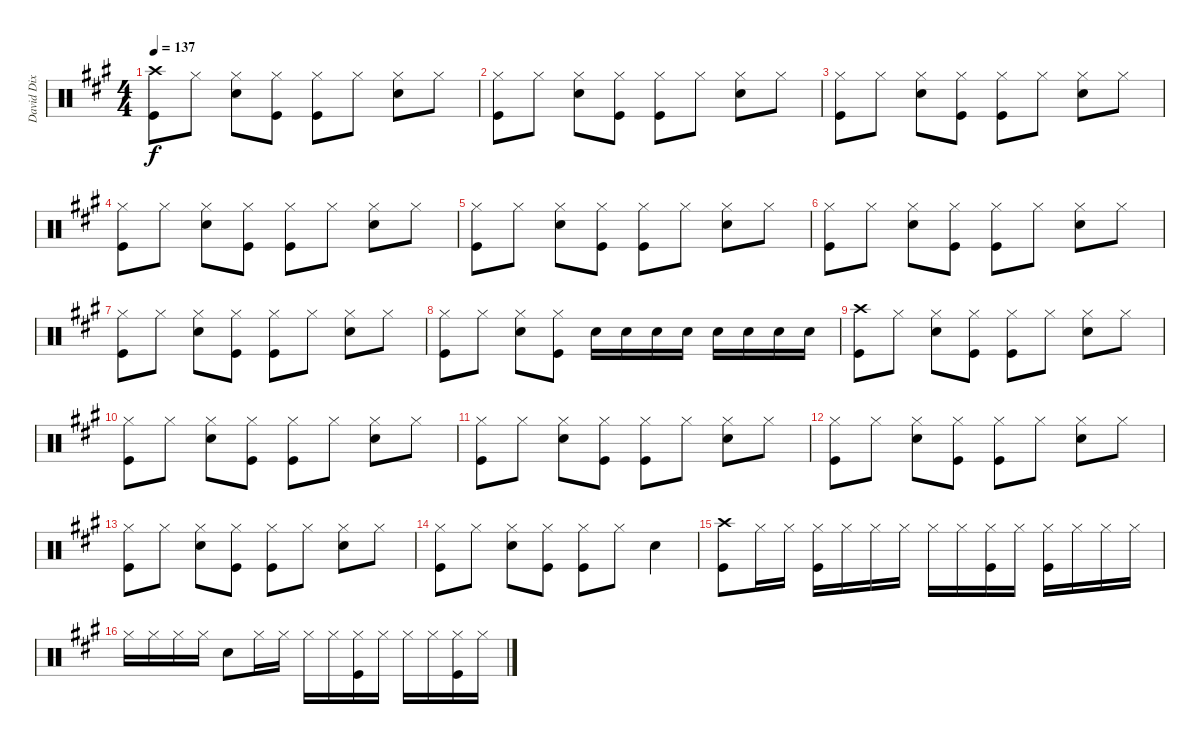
\track ("David Dix Drums" "David Dix ") {instrument percussion}
\staff {score}
\articulation defaults
\ts (4 4)
\tempo 137
\clef neutral
\ks a
("Crash high (hit)" "Kick (hit)").8{dy f} "Hi-Hat (closed)".8 ("Hi-Hat (closed)" "Snare (hit) 2").8 ("Hi-Hat (closed)" "Kick (hit)").8 ("Hi-Hat (closed)" "Kick (hit)").8 "Hi-Hat (closed)".8 ("Hi-Hat (closed)" "Snare (hit) 2").8 "Hi-Hat (closed)".8 |
("Hi-Hat (closed)" "Kick (hit)").8 "Hi-Hat (closed)".8 ("Hi-Hat (closed)" "Snare (hit) 2").8 ("Hi-Hat (closed)" "Kick (hit)").8 ("Hi-Hat (closed)" "Kick (hit)").8 "Hi-Hat (closed)".8 ("Hi-Hat (closed)" "Snare (hit) 2").8 "Hi-Hat (closed)".8 |
("Hi-Hat (closed)" "Kick (hit)").8 "Hi-Hat (closed)".8 ("Hi-Hat (closed)" "Snare (hit) 2").8 ("Hi-Hat (closed)" "Kick (hit)").8 ("Hi-Hat (closed)" "Kick (hit)").8 "Hi-Hat (closed)".8 ("Hi-Hat (closed)" "Snare (hit) 2").8 "Hi-Hat (closed)".8 |
("Hi-Hat (closed)" "Kick (hit)").8 "Hi-Hat (closed)".8 ("Hi-Hat (closed)" "Snare (hit) 2").8 ("Hi-Hat (closed)" "Kick (hit)").8 ("Hi-Hat (closed)" "Kick (hit)").8 "Hi-Hat (closed)".8 ("Hi-Hat (closed)" "Snare (hit) 2").8 "Hi-Hat (closed)".8 |
("Hi-Hat (closed)" "Kick (hit)").8 "Hi-Hat (closed)".8 ("Hi-Hat (closed)" "Snare (hit) 2").8 ("Hi-Hat (closed)" "Kick (hit)").8 ("Hi-Hat (closed)" "Kick (hit)").8 "Hi-Hat (closed)".8 ("Hi-Hat (closed)" "Snare (hit) 2").8 "Hi-Hat (closed)".8 |
("Hi-Hat (closed)" "Kick (hit)").8 "Hi-Hat (closed)".8 ("Hi-Hat (closed)" "Snare (hit) 2").8 ("Hi-Hat (closed)" "Kick (hit)").8 ("Hi-Hat (closed)" "Kick (hit)").8 "Hi-Hat (closed)".8 ("Hi-Hat (closed)" "Snare (hit) 2").8 "Hi-Hat (closed)".8 |
("Hi-Hat (closed)" "Kick (hit)").8 "Hi-Hat (closed)".8 ("Hi-Hat (closed)" "Snare (hit) 2").8 ("Hi-Hat (closed)" "Kick (hit)").8 ("Hi-Hat (closed)" "Kick (hit)").8 "Hi-Hat (closed)".8 ("Hi-Hat (closed)" "Snare (hit) 2").8 "Hi-Hat (closed)".8 |
("Hi-Hat (closed)" "Kick (hit)").8 "Hi-Hat (closed)".8 ("Hi-Hat (closed)" "Snare (hit) 2").8 ("Hi-Hat (closed)" "Kick (hit)").8 "Snare (hit) 2".16 "Snare (hit) 2".16 "Snare (hit) 2".16 "Snare (hit) 2".16 "Snare (hit) 2".16 "Snare (hit) 2".16 "Snare (hit) 2".16 "Snare (hit) 2".16 |
("Crash high (hit)" "Kick (hit)").8 "Hi-Hat (closed)".8 ("Hi-Hat (closed)" "Snare (hit) 2").8 ("Hi-Hat (closed)" "Kick (hit)").8 ("Hi-Hat (closed)" "Kick (hit)").8 "Hi-Hat (closed)".8 ("Hi-Hat (closed)" "Snare (hit) 2").8 "Hi-Hat (closed)".8 |
("Hi-Hat (closed)" "Kick (hit)").8 "Hi-Hat (closed)".8 ("Hi-Hat (closed)" "Snare (hit) 2").8 ("Hi-Hat (closed)" "Kick (hit)").8 ("Hi-Hat (closed)" "Kick (hit)").8 "Hi-Hat (closed)".8 ("Hi-Hat (closed)" "Snare (hit) 2").8 "Hi-Hat (closed)".8 |
("Hi-Hat (closed)" "Kick (hit)").8 "Hi-Hat (closed)".8 ("Hi-Hat (closed)" "Snare (hit) 2").8 ("Hi-Hat (closed)" "Kick (hit)").8 ("Hi-Hat (closed)" "Kick (hit)").8 "Hi-Hat (closed)".8 ("Hi-Hat (closed)" "Snare (hit) 2").8 "Hi-Hat (closed)".8 |
("Hi-Hat (closed)" "Kick (hit)").8 "Hi-Hat (closed)".8 ("Hi-Hat (closed)" "Snare (hit) 2").8 ("Hi-Hat (closed)" "Kick (hit)").8 ("Hi-Hat (closed)" "Kick (hit)").8 "Hi-Hat (closed)".8 ("Hi-Hat (closed)" "Snare (hit) 2").8 "Hi-Hat (closed)".8 |
("Hi-Hat (closed)" "Kick (hit)").8 "Hi-Hat (closed)".8 ("Hi-Hat (closed)" "Snare (hit) 2").8 ("Hi-Hat (closed)" "Kick (hit)").8 ("Hi-Hat (closed)" "Kick (hit)").8 "Hi-Hat (closed)".8 ("Hi-Hat (closed)" "Snare (hit) 2").8 "Hi-Hat (closed)".8 |
("Hi-Hat (closed)" "Kick (hit)").8 "Hi-Hat (closed)".8 ("Hi-Hat (closed)" "Snare (hit) 2").8 ("Hi-Hat (closed)" "Kick (hit)").8 ("Hi-Hat (closed)" "Kick (hit)").8 "Hi-Hat (closed)".8 "Snare (hit) 2".4 |
("Crash high (hit)" "Kick (hit)").8 "Hi-Hat (closed)".16 "Hi-Hat (closed)".16 ("Hi-Hat (closed)" "Kick (hit)").16 "Hi-Hat (closed)".16 "Hi-Hat (closed)".16 "Hi-Hat (closed)".16 "Hi-Hat (closed)".16 "Hi-Hat (closed)".16 ("Hi-Hat (closed)" "Kick (hit)").16 "Hi-Hat (closed)".16 ("Hi-Hat (closed)" "Kick (hit)").16 "Hi-Hat (closed)".16 "Hi-Hat (closed)".16 "Hi-Hat (closed)".16 |
"Hi-Hat (closed)".16 "Hi-Hat (closed)".16 "Hi-Hat (closed)".16 "Hi-Hat (closed)".16 "Snare (hit) 2".8 "Hi-Hat (closed)".16 "Hi-Hat (closed)".16 "Hi-Hat (closed)".16 "Hi-Hat (closed)".16 ("Hi-Hat (closed)" "Kick (hit)").16 "Hi-Hat (closed)".16 "Hi-Hat (closed)".16 "Hi-Hat (closed)".16 ("Hi-Hat (closed)" "Kick (hit)").16 "Hi-Hat (closed)".16
